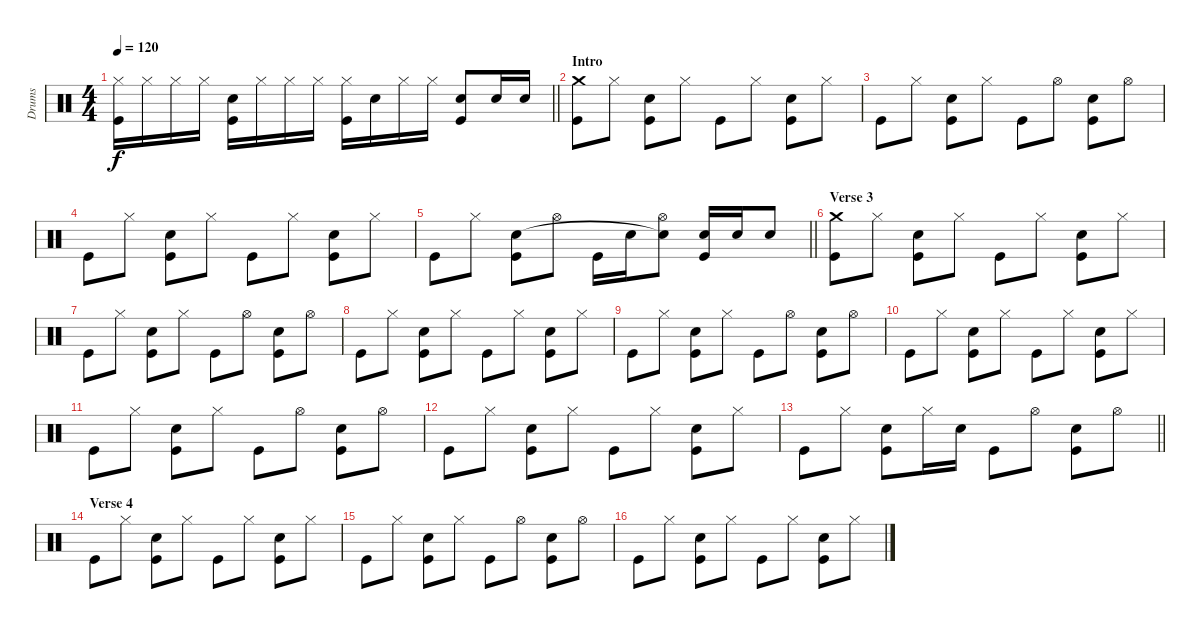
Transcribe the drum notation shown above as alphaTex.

\track ("Drums" "Drums") {instrument percussion}
\staff {score}
\articulation defaults
\ts (4 4)
\tempo 120
\clef neutral
\barLineRight lightlight
\ks c
("Hi-Hat (closed)" "Kick (hit)").16{dy f} "Hi-Hat (closed)".16 "Hi-Hat (closed)".16 "Hi-Hat (closed)".16 ("Kick (hit)" "Snare (hit) 2").16 "Hi-Hat (closed)".16 "Hi-Hat (closed)".16 "Hi-Hat (closed)".16 ("Hi-Hat (closed)" "Kick (hit)").16 "Snare (hit) 2".16 "Hi-Hat (closed)".16 "Hi-Hat (closed)".16 ("Kick (hit)" "Snare (hit) 2").8 "Snare (hit) 2".16 "Snare (hit) 2".16 |
\section ("" "Intro")
("Crash medium (hit)" "Kick (hit)").8 "Hi-Hat (closed)".8 ("Kick (hit)" "Snare (hit) 2").8 "Hi-Hat (closed)".8 "Kick (hit)".8 "Hi-Hat (closed)".8 ("Kick (hit)" "Snare (hit) 2").8 "Hi-Hat (closed)".8 |
"Kick (hit)".8 "Hi-Hat (closed)".8 ("Kick (hit)" "Snare (hit) 2").8 "Hi-Hat (closed)".8 "Kick (hit)".8 "Hi-Hat (open)".8 ("Kick (hit)" "Snare (hit) 2").8 "Hi-Hat (open)".8 |
"Kick (hit)".8 "Hi-Hat (closed)".8 ("Kick (hit)" "Snare (hit) 2").8 "Hi-Hat (closed)".8 "Kick (hit)".8 "Hi-Hat (closed)".8 ("Kick (hit)" "Snare (hit) 2").8 "Hi-Hat (closed)".8 |
\barLineRight lightlight "Kick (hit)".8 "Hi-Hat (closed)".8
("Kick (hit)" "Snare (hit) 2").8 "Hi-Hat (open)".8 "Kick (hit)".16 "Snare (hit) 2".16 ("Hi-Hat (open)" "Snare (hit) 2"{t}).8 ("Kick (hit)" "Snare (hit) 2").16 "Snare (hit) 2".16 "Snare (hit) 2".8 |
\section ("" "Verse 3")
("Crash medium (hit)" "Kick (hit)").8 "Hi-Hat (closed)".8 ("Kick (hit)" "Snare (hit) 2").8 "Hi-Hat (closed)".8 "Kick (hit)".8 "Hi-Hat (closed)".8 ("Kick (hit)" "Snare (hit) 2").8 "Hi-Hat (closed)".8 |
"Kick (hit)".8 "Hi-Hat (closed)".8 ("Kick (hit)" "Snare (hit) 2").8 "Hi-Hat (closed)".8 "Kick (hit)".8 "Hi-Hat (open)".8 ("Kick (hit)" "Snare (hit) 2").8 "Hi-Hat (open)".8 |
"Kick (hit)".8 "Hi-Hat (closed)".8 ("Kick (hit)" "Snare (hit) 2").8 "Hi-Hat (closed)".8 "Kick (hit)".8 "Hi-Hat (closed)".8 ("Kick (hit)" "Snare (hit) 2").8 "Hi-Hat (closed)".8 |
"Kick (hit)".8 "Hi-Hat (closed)".8 ("Kick (hit)" "Snare (hit) 2").8 "Hi-Hat (closed)".8 "Kick (hit)".8 "Hi-Hat (open)".8 ("Kick (hit)" "Snare (hit) 2").8 "Hi-Hat (open)".8 |
"Kick (hit)".8 "Hi-Hat (closed)".8 ("Kick (hit)" "Snare (hit) 2").8 "Hi-Hat (closed)".8 "Kick (hit)".8 "Hi-Hat (closed)".8 ("Kick (hit)" "Snare (hit) 2").8 "Hi-Hat (closed)".8 |
"Kick (hit)".8 "Hi-Hat (closed)".8 ("Kick (hit)" "Snare (hit) 2").8 "Hi-Hat (closed)".8 "Kick (hit)".8 "Hi-Hat (open)".8 ("Kick (hit)" "Snare (hit) 2").8 "Hi-Hat (open)".8 |
"Kick (hit)".8 "Hi-Hat (closed)".8 ("Kick (hit)" "Snare (hit) 2").8 "Hi-Hat (closed)".8 "Kick (hit)".8 "Hi-Hat (closed)".8 ("Kick (hit)" "Snare (hit) 2").8 "Hi-Hat (closed)".8 |
\barLineRight lightlight "Kick (hit)".8 "Hi-Hat (closed)".8
("Kick (hit)" "Snare (hit) 2").8 "Hi-Hat (closed)".16 "Snare (hit) 2".16 "Kick (hit)".8 "Hi-Hat (open)".8 ("Kick (hit)" "Snare (hit) 2").8 "Hi-Hat (open)".8 |
\section ("" "Verse 4")
"Kick (hit)".8 "Hi-Hat (closed)".8 ("Kick (hit)" "Snare (hit) 2").8 "Hi-Hat (closed)".8 "Kick (hit)".8 "Hi-Hat (closed)".8 ("Kick (hit)" "Snare (hit) 2").8 "Hi-Hat (closed)".8 |
"Kick (hit)".8 "Hi-Hat (closed)".8 ("Kick (hit)" "Snare (hit) 2").8 "Hi-Hat (closed)".8 "Kick (hit)".8 "Hi-Hat (open)".8 ("Kick (hit)" "Snare (hit) 2").8 "Hi-Hat (open)".8 |
"Kick (hit)".8 "Hi-Hat (closed)".8 ("Kick (hit)" "Snare (hit) 2").8 "Hi-Hat (closed)".8 "Kick (hit)".8 "Hi-Hat (closed)".8 ("Kick (hit)" "Snare (hit) 2").8 "Hi-Hat (closed)".8
